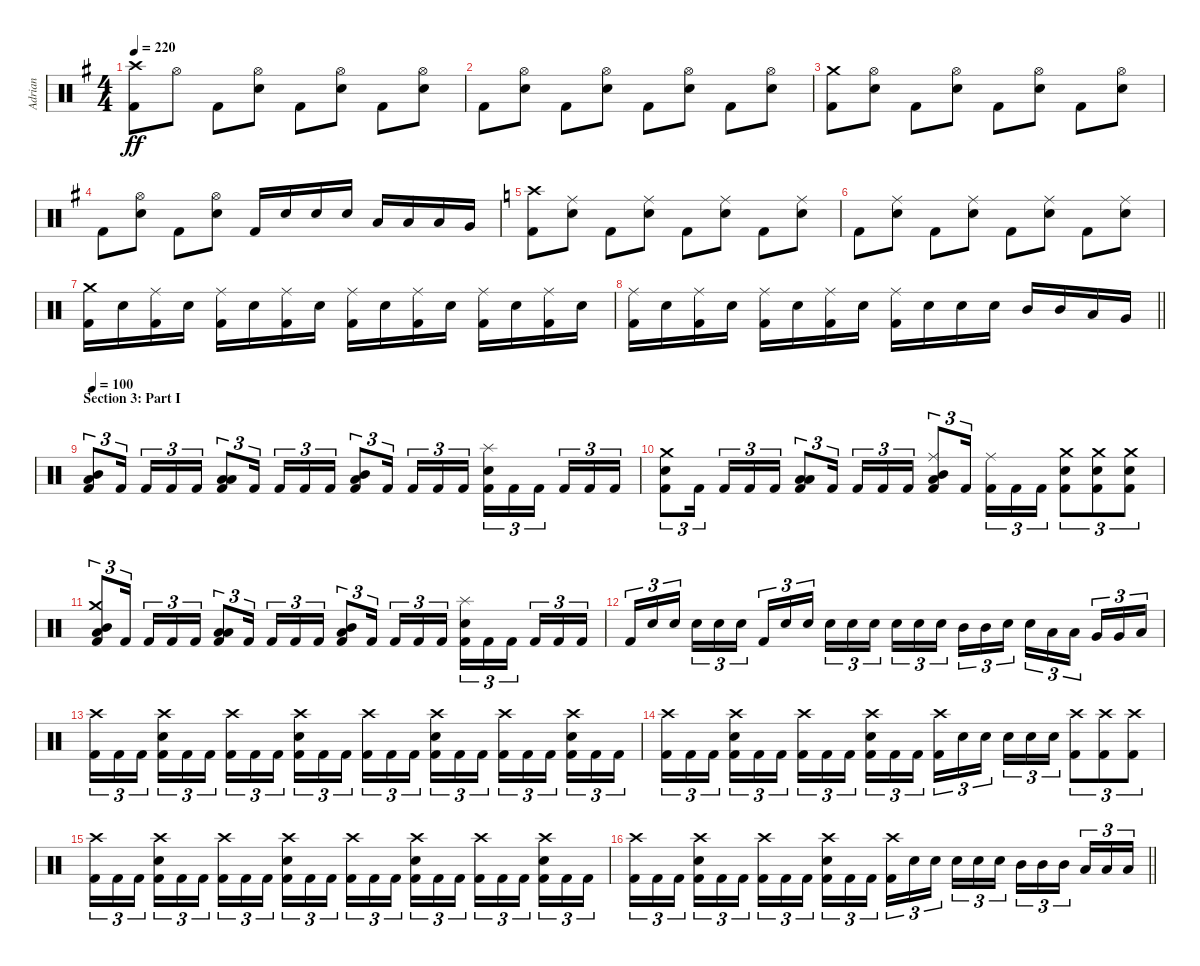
\track ("Adrian" "Adrian") {instrument percussion}
\staff {score}
\articulation defaults
\ts (4 4)
\tempo 220
\clef neutral
\ks g
("Crash high (hit)" "Kick (hit) 2").8{dy ff} "Hi-Hat (open)".8 "Kick (hit) 2".8 ("Hi-Hat (open)" "Electric Snare (hit)").8 "Kick (hit) 2".8 ("Hi-Hat (open)" "Electric Snare (hit)").8 "Kick (hit) 2".8 ("Hi-Hat (open)" "Electric Snare (hit)").8 |
"Kick (hit) 2".8 ("Hi-Hat (open)" "Electric Snare (hit)").8 "Kick (hit) 2".8 ("Hi-Hat (open)" "Electric Snare (hit)").8 "Kick (hit) 2".8 ("Hi-Hat (open)" "Electric Snare (hit)").8 "Kick (hit) 2".8 ("Hi-Hat (open)" "Electric Snare (hit)").8 |
("Crash medium (hit)" "Kick (hit) 2").8 ("Hi-Hat (open)" "Electric Snare (hit)").8 "Kick (hit) 2".8 ("Hi-Hat (open)" "Electric Snare (hit)").8 "Kick (hit) 2".8 ("Hi-Hat (open)" "Electric Snare (hit)").8 "Kick (hit) 2".8 ("Hi-Hat (open)" "Electric Snare (hit)").8 |
"Kick (hit) 2".8 ("Hi-Hat (open)" "Electric Snare (hit)").8 "Kick (hit) 2".8 ("Hi-Hat (open)" "Electric Snare (hit)").8 "Kick (hit) 2".16 "Electric Snare (hit)".16 "Electric Snare (hit)".16 "Electric Snare (hit)".16 "Low Tom (hit)".16 "Low Tom (hit)".16 "Low Tom (hit)".16 "Very Low Tom (hit)".16 |
\ks c
("Crash high (hit)" "Kick (hit) 2").8 ("Ride (middle)" "Electric Snare (hit)").8 "Kick (hit) 2".8 ("Ride (middle)" "Electric Snare (hit)").8 "Kick (hit) 2".8 ("Ride (middle)" "Electric Snare (hit)").8 "Kick (hit) 2".8 ("Ride (middle)" "Electric Snare (hit)").8 |
"Kick (hit) 2".8 ("Ride (middle)" "Electric Snare (hit)").8 "Kick (hit) 2".8 ("Ride (middle)" "Electric Snare (hit)").8 "Kick (hit) 2".8 ("Ride (middle)" "Electric Snare (hit)").8 "Kick (hit) 2".8 ("Ride (middle)" "Electric Snare (hit)").8 |
("Crash medium (hit)" "Kick (hit) 2").16 "Electric Snare (hit)".16 ("Ride (middle)" "Kick (hit) 2").16 "Electric Snare (hit)".16 ("Ride (middle)" "Kick (hit) 2").16 "Electric Snare (hit)".16 ("Ride (middle)" "Kick (hit) 2").16 "Electric Snare (hit)".16 ("Ride (middle)" "Kick (hit) 2").16 "Electric Snare (hit)".16 ("Ride (middle)" "Kick (hit) 2").16 "Electric Snare (hit)".16 ("Ride (middle)" "Kick (hit) 2").16 "Electric Snare (hit)".16 ("Ride (middle)" "Kick (hit) 2").16 "Electric Snare (hit)".16 |
\barLineRight lightlight
("Ride (middle)" "Kick (hit) 2").16 "Electric Snare (hit)".16 ("Ride (middle)" "Kick (hit) 2").16 "Electric Snare (hit)".16 ("Ride (middle)" "Kick (hit) 2").16 "Electric Snare (hit)".16 ("Ride (middle)" "Kick (hit) 2").16 "Electric Snare (hit)".16 ("Ride (middle)" "Kick (hit) 2").16 "Electric Snare (hit)".16 "Electric Snare (hit)".16 "Electric Snare (hit)".16 "Mid Tom (hit)".16 "Mid Tom (hit)".16 "Low Tom (hit)".16 "Very Low Tom (hit)".16 |
\section ("" "Section 3: Part I")
\tempo 100
("Mid Tom (hit)" "Low Floor Tom (hit)" "Kick (hit) 2").8{tu (3 2)} "Kick (hit) 2".16{tu (3 2) beam splitsecondary} "Kick (hit) 2".16{tu (3 2)} "Kick (hit) 2".16{tu (3 2)} "Kick (hit) 2".16{tu (3 2)} ("Low Tom (hit)" "Low Floor Tom (hit)" "Kick (hit) 2").8{tu (3 2)} "Kick (hit) 2".16{tu (3 2) beam splitsecondary} "Kick (hit) 2".16{tu (3 2)} "Kick (hit) 2".16{tu (3 2)} "Kick (hit) 2".16{tu (3 2)} ("Mid Tom (hit)" "Low Floor Tom (hit)" "Kick (hit) 2").8{tu (3 2)} "Kick (hit) 2".16{tu (3 2) beam splitsecondary} "Kick (hit) 2".16{tu (3 2)} "Kick (hit) 2".16{tu (3 2)} "Kick (hit) 2".16{tu (3 2)} ("Splash (hit)" "Electric Snare (hit)" "Kick (hit) 2").16{tu (3 2)} "Kick (hit) 2".16{tu (3 2)} "Kick (hit) 2".16{tu (3 2) beam splitsecondary} "Kick (hit) 2".16{tu (3 2)} "Kick (hit) 2".16{tu (3 2)} "Kick (hit) 2".16{tu (3 2)} |
("Crash medium (hit)" "Electric Snare (hit)" "Kick (hit) 2").8{tu (3 2)} "Kick (hit) 2".16{tu (3 2) beam splitsecondary} "Kick (hit) 2".16{tu (3 2)} "Kick (hit) 2".16{tu (3 2)} "Kick (hit) 2".16{tu (3 2)} ("Low Tom (hit)" "Low Floor Tom (hit)" "Kick (hit) 2").8{tu (3 2)} "Kick (hit) 2".16{tu (3 2) beam splitsecondary} "Kick (hit) 2".16{tu (3 2)} "Kick (hit) 2".16{tu (3 2)} "Kick (hit) 2".16{tu (3 2)} ("Ride (middle)" "Mid Tom (hit)" "Low Floor Tom (hit)" "Kick (hit) 2").8{tu (3 2)} "Kick (hit) 2".16{tu (3 2) beam splitsecondary} ("Ride (middle)" "Kick (hit) 2").16{tu (3 2)} "Kick (hit) 2".16{tu (3 2)} "Kick (hit) 2".16{tu (3 2)} ("Crash medium (hit)" "Electric Snare (hit)" "Kick (hit) 2").8{tu (3 2)} ("Crash medium (hit)" "Electric Snare (hit)" "Kick (hit) 2").8{tu (3 2)} ("Crash medium (hit)" "Electric Snare (hit)" "Kick (hit) 2").8{tu (3 2)} |
("Crash medium (hit)" "Mid Tom (hit)" "Low Floor Tom (hit)" "Kick (hit) 2").8{tu (3 2)} "Kick (hit) 2".16{tu (3 2) beam splitsecondary} "Kick (hit) 2".16{tu (3 2)} "Kick (hit) 2".16{tu (3 2)} "Kick (hit) 2".16{tu (3 2)} ("Low Tom (hit)" "Low Floor Tom (hit)" "Kick (hit) 2").8{tu (3 2)} "Kick (hit) 2".16{tu (3 2) beam splitsecondary} "Kick (hit) 2".16{tu (3 2)} "Kick (hit) 2".16{tu (3 2)} "Kick (hit) 2".16{tu (3 2)} ("Mid Tom (hit)" "Low Floor Tom (hit)" "Kick (hit) 2").8{tu (3 2)} "Kick (hit) 2".16{tu (3 2) beam splitsecondary} "Kick (hit) 2".16{tu (3 2)} "Kick (hit) 2".16{tu (3 2)} "Kick (hit) 2".16{tu (3 2)} ("Splash (hit)" "Electric Snare (hit)" "Kick (hit) 2").16{tu (3 2)} "Kick (hit) 2".16{tu (3 2)} "Kick (hit) 2".16{tu (3 2) beam splitsecondary} "Kick (hit) 2".16{tu (3 2)} "Kick (hit) 2".16{tu (3 2)} "Kick (hit) 2".16{tu (3 2)} |
"Kick (hit) 2".16{tu (3 2)} "Electric Snare (hit)".16{tu (3 2)} "Electric Snare (hit)".16{tu (3 2) beam splitsecondary} "Electric Snare (hit)".16{tu (3 2)} "Electric Snare (hit)".16{tu (3 2)} "Electric Snare (hit)".16{tu (3 2)} "Kick (hit) 2".16{tu (3 2)} "Electric Snare (hit)".16{tu (3 2)} "Electric Snare (hit)".16{tu (3 2) beam splitsecondary} "Electric Snare (hit)".16{tu (3 2)} "Electric Snare (hit)".16{tu (3 2)} "Electric Snare (hit)".16{tu (3 2)} "Electric Snare (hit)".16{tu (3 2)} "Electric Snare (hit)".16{tu (3 2)} "Electric Snare (hit)".16{tu (3 2) beam splitsecondary} "Mid Tom (hit)".16{tu (3 2)} "Mid Tom (hit)".16{tu (3 2)} "Electric Snare (hit)".16{tu (3 2)} "Electric Snare (hit)".16{tu (3 2)} "Low Tom (hit)".16{tu (3 2)} "Low Tom (hit)".16{tu (3 2) beam splitsecondary} "Very Low Tom (hit)".16{tu (3 2)} "Very Low Tom (hit)".16{tu (3 2)} "Low Floor Tom (hit)".16{tu (3 2)} |
("Crash high (hit)" "Kick (hit) 2").16{tu (3 2)} "Kick (hit) 2".16{tu (3 2)} "Kick (hit) 2".16{tu (3 2) beam splitsecondary} ("Crash high (hit)" "Electric Snare (hit)" "Kick (hit) 2").16{tu (3 2)} "Kick (hit) 2".16{tu (3 2)} "Kick (hit) 2".16{tu (3 2)} ("Crash high (hit)" "Kick (hit) 2").16{tu (3 2)} "Kick (hit) 2".16{tu (3 2)} "Kick (hit) 2".16{tu (3 2) beam splitsecondary} ("Crash high (hit)" "Electric Snare (hit)" "Kick (hit) 2").16{tu (3 2)} "Kick (hit) 2".16{tu (3 2)} "Kick (hit) 2".16{tu (3 2)} ("Crash high (hit)" "Kick (hit) 2").16{tu (3 2)} "Kick (hit) 2".16{tu (3 2)} "Kick (hit) 2".16{tu (3 2) beam splitsecondary} ("Crash high (hit)" "Electric Snare (hit)" "Kick (hit) 2").16{tu (3 2)} "Kick (hit) 2".16{tu (3 2)} "Kick (hit) 2".16{tu (3 2)} ("Crash high (hit)" "Kick (hit) 2").16{tu (3 2)} "Kick (hit) 2".16{tu (3 2)} "Kick (hit) 2".16{tu (3 2) beam splitsecondary} ("Crash high (hit)" "Electric Snare (hit)" "Kick (hit) 2").16{tu (3 2)} "Kick (hit) 2".16{tu (3 2)} "Kick (hit) 2".16{tu (3 2)} |
("Crash high (hit)" "Kick (hit) 2").16{tu (3 2)} "Kick (hit) 2".16{tu (3 2)} "Kick (hit) 2".16{tu (3 2) beam splitsecondary} ("Crash high (hit)" "Electric Snare (hit)" "Kick (hit) 2").16{tu (3 2)} "Kick (hit) 2".16{tu (3 2)} "Kick (hit) 2".16{tu (3 2)} ("Crash high (hit)" "Kick (hit) 2").16{tu (3 2)} "Kick (hit) 2".16{tu (3 2)} "Kick (hit) 2".16{tu (3 2) beam splitsecondary} ("Crash high (hit)" "Electric Snare (hit)" "Kick (hit) 2").16{tu (3 2)} "Kick (hit) 2".16{tu (3 2)} "Kick (hit) 2".16{tu (3 2)} ("Crash high (hit)" "Kick (hit) 2").16{tu (3 2)} "Electric Snare (hit)".16{tu (3 2)} "Electric Snare (hit)".16{tu (3 2) beam splitsecondary} "Electric Snare (hit)".16{tu (3 2)} "Electric Snare (hit)".16{tu (3 2)} "Electric Snare (hit)".16{tu (3 2)} ("Crash high (hit)" "Kick (hit) 2").8{tu (3 2)} ("Crash high (hit)" "Kick (hit) 2").8{tu (3 2)} ("Crash high (hit)" "Kick (hit) 2").8{tu (3 2)} |
("Crash high (hit)" "Kick (hit) 2").16{tu (3 2)} "Kick (hit) 2".16{tu (3 2)} "Kick (hit) 2".16{tu (3 2) beam splitsecondary} ("Crash high (hit)" "Electric Snare (hit)" "Kick (hit) 2").16{tu (3 2)} "Kick (hit) 2".16{tu (3 2)} "Kick (hit) 2".16{tu (3 2)} ("Crash high (hit)" "Kick (hit) 2").16{tu (3 2)} "Kick (hit) 2".16{tu (3 2)} "Kick (hit) 2".16{tu (3 2) beam splitsecondary} ("Crash high (hit)" "Electric Snare (hit)" "Kick (hit) 2").16{tu (3 2)} "Kick (hit) 2".16{tu (3 2)} "Kick (hit) 2".16{tu (3 2)} ("Crash high (hit)" "Kick (hit) 2").16{tu (3 2)} "Kick (hit) 2".16{tu (3 2)} "Kick (hit) 2".16{tu (3 2) beam splitsecondary} ("Crash high (hit)" "Electric Snare (hit)" "Kick (hit) 2").16{tu (3 2)} "Kick (hit) 2".16{tu (3 2)} "Kick (hit) 2".16{tu (3 2)} ("Crash high (hit)" "Kick (hit) 2").16{tu (3 2)} "Kick (hit) 2".16{tu (3 2)} "Kick (hit) 2".16{tu (3 2) beam splitsecondary} ("Crash high (hit)" "Electric Snare (hit)" "Kick (hit) 2").16{tu (3 2)} "Kick (hit) 2".16{tu (3 2)} "Kick (hit) 2".16{tu (3 2)} |
\barLineRight lightlight
("Crash high (hit)" "Kick (hit) 2").16{tu (3 2)} "Kick (hit) 2".16{tu (3 2)} "Kick (hit) 2".16{tu (3 2) beam splitsecondary} ("Crash high (hit)" "Electric Snare (hit)" "Kick (hit) 2").16{tu (3 2)} "Kick (hit) 2".16{tu (3 2)} "Kick (hit) 2".16{tu (3 2)} ("Crash high (hit)" "Kick (hit) 2").16{tu (3 2)} "Kick (hit) 2".16{tu (3 2)} "Kick (hit) 2".16{tu (3 2) beam splitsecondary} ("Crash high (hit)" "Electric Snare (hit)" "Kick (hit) 2").16{tu (3 2)} "Kick (hit) 2".16{tu (3 2)} "Kick (hit) 2".16{tu (3 2)} ("Crash high (hit)" "Kick (hit) 2").16{tu (3 2)} "Electric Snare (hit)".16{tu (3 2)} "Electric Snare (hit)".16{tu (3 2) beam splitsecondary} "Electric Snare (hit)".16{tu (3 2)} "Electric Snare (hit)".16{tu (3 2)} "Electric Snare (hit)".16{tu (3 2)} "Mid Tom (hit)".16{tu (3 2)} "Mid Tom (hit)".16{tu (3 2)} "Mid Tom (hit)".16{tu (3 2) beam splitsecondary} "Low Tom (hit)".16{tu (3 2)} "Low Tom (hit)".16{tu (3 2)} "Low Tom (hit)".16{tu (3 2)}
